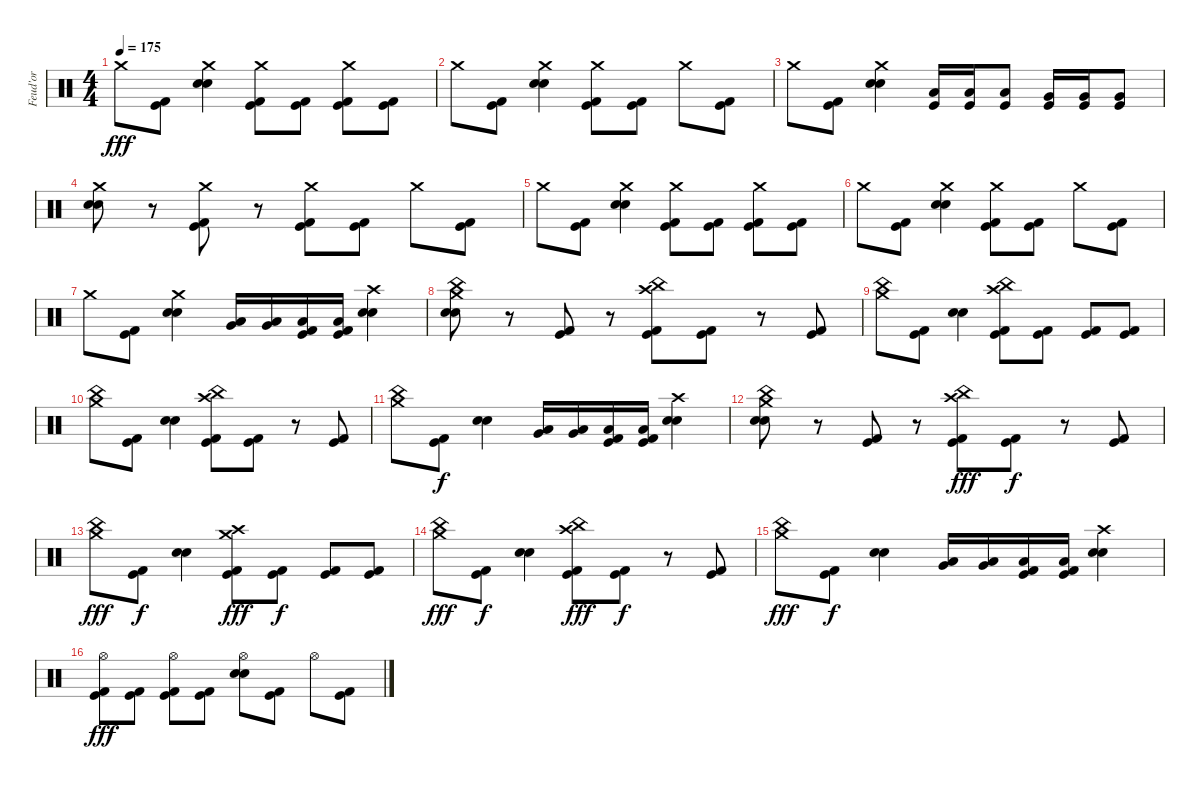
\track ("Feud'or" "Feud'or") {instrument percussion}
\staff {score}
\articulation defaults
\ts (4 4)
\tempo 175
\clef neutral
\ks c "Crash medium (hit)".8{dy fff}
("Kick (hit) 2" "Kick (hit)").8 ("Crash medium (hit)" "Electric Snare (hit)" "Snare (hit) 2").4 ("Crash medium (hit)" "Kick (hit) 2" "Kick (hit)").8 ("Kick (hit) 2" "Kick (hit)").8 ("Crash medium (hit)" "Kick (hit) 2" "Kick (hit)").8 ("Kick (hit) 2" "Kick (hit)").8 |
"Crash medium (hit)".8 ("Kick (hit) 2" "Kick (hit)").8 ("Crash medium (hit)" "Electric Snare (hit)" "Snare (hit) 2").4 ("Crash medium (hit)" "Kick (hit) 2" "Kick (hit)").8 ("Kick (hit) 2" "Kick (hit)").8 "Crash medium (hit)".8 ("Kick (hit) 2" "Kick (hit)").8 |
"Crash medium (hit)".8 ("Kick (hit) 2" "Kick (hit)").8 ("Crash medium (hit)" "Electric Snare (hit)" "Snare (hit) 2").4 ("Low Tom (hit)" "Kick (hit)").16 ("Low Tom (hit)" "Kick (hit)").16 ("Low Tom (hit)" "Kick (hit)").8 ("Very Low Tom (hit)" "Kick (hit)").16 ("Very Low Tom (hit)" "Kick (hit)").16 ("Very Low Tom (hit)" "Kick (hit)").8 |
("Crash medium (hit)" "Electric Snare (hit)" "Snare (hit) 2").8 r.8 ("Crash medium (hit)" "Kick (hit) 2" "Kick (hit)").8 r.8 ("Crash medium (hit)" "Kick (hit) 2" "Kick (hit)").8 ("Kick (hit) 2" "Kick (hit)").8 "Crash medium (hit)".8 ("Kick (hit) 2" "Kick (hit)").8 |
"Crash medium (hit)".8 ("Kick (hit) 2" "Kick (hit)").8 ("Crash medium (hit)" "Electric Snare (hit)" "Snare (hit) 2").4 ("Crash medium (hit)" "Kick (hit) 2" "Kick (hit)").8 ("Kick (hit) 2" "Kick (hit)").8 ("Crash medium (hit)" "Kick (hit) 2" "Kick (hit)").8 ("Kick (hit) 2" "Kick (hit)").8 |
"Crash medium (hit)".8 ("Kick (hit) 2" "Kick (hit)").8 ("Crash medium (hit)" "Electric Snare (hit)" "Snare (hit) 2").4 ("Crash medium (hit)" "Kick (hit) 2" "Kick (hit)").8 ("Kick (hit) 2" "Kick (hit)").8 "Crash medium (hit)".8 ("Kick (hit) 2" "Kick (hit)").8 |
"Crash medium (hit)".8 ("Kick (hit) 2" "Kick (hit)").8 ("Crash medium (hit)" "Electric Snare (hit)" "Snare (hit) 2").4 ("Low Tom (hit)" "Very Low Tom (hit)").16 ("Low Tom (hit)" "Very Low Tom (hit)").16 ("Low Floor Tom (hit)" "Kick (hit) 2" "Kick (hit)").16 ("Low Floor Tom (hit)" "Kick (hit) 2" "Kick (hit)").16 ("Crash high (hit)" "Snare (hit) 2" "Electric Snare (hit)").4 |
("China (hit)" "Crash medium (hit)" "Electric Snare (hit)" "Snare (hit) 2").8 r.8 ("Kick (hit) 2" "Kick (hit)").8 r.8 ("China (hit)" "Crash high (hit)" "Kick (hit) 2" "Kick (hit)").8 ("Kick (hit) 2" "Kick (hit)").8 r.8 ("Kick (hit) 2" "Kick (hit)").8 |
("China (hit)" "Crash medium (hit)").8 ("Kick (hit) 2" "Kick (hit)").8 ("Electric Snare (hit)" "Snare (hit) 2").4 ("China (hit)" "Crash high (hit)" "Kick (hit) 2" "Kick (hit)").8 ("Kick (hit) 2" "Kick (hit)").8 ("Kick (hit) 2" "Kick (hit)").8 ("Kick (hit) 2" "Kick (hit)").8 |
("China (hit)" "Crash medium (hit)").8 ("Kick (hit) 2" "Kick (hit)").8 ("Electric Snare (hit)" "Snare (hit) 2").4 ("China (hit)" "Crash high (hit)" "Kick (hit) 2" "Kick (hit)").8 ("Kick (hit) 2" "Kick (hit)").8 r.8 ("Kick (hit) 2" "Kick (hit)").8 |
("China (hit)" "Crash medium (hit)").8 ("Kick (hit) 2" "Kick (hit)").8{dy f} ("Electric Snare (hit)" "Snare (hit) 2").4 ("Low Tom (hit)" "Very Low Tom (hit)").16 ("Low Tom (hit)" "Very Low Tom (hit)").16 ("Low Floor Tom (hit)" "Kick (hit) 2" "Kick (hit)").16 ("Low Floor Tom (hit)" "Kick (hit) 2" "Kick (hit)").16 ("Crash high (hit)" "Snare (hit) 2" "Electric Snare (hit)").4 |
("China (hit)" "Crash medium (hit)" "Electric Snare (hit)" "Snare (hit) 2").8 r.8 ("Kick (hit) 2" "Kick (hit)").8 r.8 ("China (hit)" "Crash high (hit)" "Kick (hit) 2" "Kick (hit)").8{dy fff} ("Kick (hit) 2" "Kick (hit)").8{dy f} r.8 ("Kick (hit) 2" "Kick (hit)").8 |
("China (hit)" "Crash medium (hit)").8{dy fff} ("Kick (hit) 2" "Kick (hit)").8{dy f} ("Electric Snare (hit)" "Snare (hit) 2").4 ("Crash medium (hit)" "Crash high (hit)" "Kick (hit) 2" "Kick (hit)").8{dy fff} ("Kick (hit) 2" "Kick (hit)").8{dy f} ("Kick (hit) 2" "Kick (hit)").8 ("Kick (hit) 2" "Kick (hit)").8 |
("China (hit)" "Crash medium (hit)").8{dy fff} ("Kick (hit) 2" "Kick (hit)").8{dy f} ("Electric Snare (hit)" "Snare (hit) 2").4 ("China (hit)" "Crash high (hit)" "Kick (hit) 2" "Kick (hit)").8{dy fff} ("Kick (hit) 2" "Kick (hit)").8{dy f} r.8 ("Kick (hit) 2" "Kick (hit)").8 |
("China (hit)" "Crash medium (hit)").8{dy fff} ("Kick (hit) 2" "Kick (hit)").8{dy f} ("Electric Snare (hit)" "Snare (hit) 2").4 ("Low Tom (hit)" "Very Low Tom (hit)").16 ("Low Tom (hit)" "Very Low Tom (hit)").16 ("Low Floor Tom (hit)" "Kick (hit) 2" "Kick (hit)").16 ("Low Floor Tom (hit)" "Kick (hit) 2" "Kick (hit)").16 ("Crash high (hit)" "Snare (hit) 2" "Electric Snare (hit)").4 |
("Hi-Hat (open)" "Kick (hit) 2" "Kick (hit)").8{dy fff} ("Kick (hit) 2" "Kick (hit)").8 ("Hi-Hat (open)" "Kick (hit) 2" "Kick (hit)").8 ("Kick (hit) 2" "Kick (hit)").8 ("Hi-Hat (open)" "Electric Snare (hit)" "Snare (hit) 2").8 ("Kick (hit) 2" "Kick (hit)").8 "Hi-Hat (open)".8 ("Kick (hit) 2" "Kick (hit)").8
